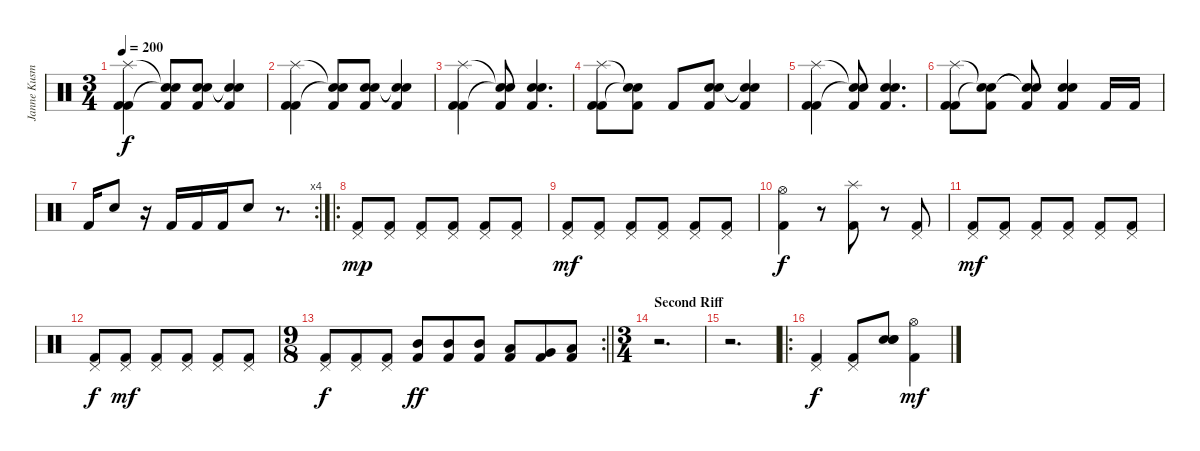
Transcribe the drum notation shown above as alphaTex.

\track ("Janne Kusmin" "Janne Kusm") {instrument percussion}
\staff {score}
\articulation defaults
\ts (3 4)
\tempo 200
\clef neutral
\ks c
("Splash (hit)" "Kick (hit) 2" "Kick (hit) 2").4{dy f} ("Snare (hit)"{t} "Snare (hit)"{t} "Kick (hit) 2").8 ("Snare (hit) 2" "Snare (hit) 2" "Kick (hit) 2").8 ("Snare (hit)"{t} "Snare (hit)"{t} "Kick (hit) 2").4 |
("Splash (hit)" "Kick (hit) 2" "Kick (hit) 2").4 ("Snare (hit)"{t} "Snare (hit)"{t} "Kick (hit) 2").8 ("Snare (hit) 2" "Snare (hit) 2" "Kick (hit) 2").8 ("Snare (hit)"{t} "Snare (hit)"{t} "Kick (hit) 2").4 |
("Splash (hit)" "Kick (hit) 2" "Kick (hit) 2").4 ("Snare (hit)"{t} "Snare (hit)"{t} "Kick (hit) 2").8 ("Snare (hit) 2" "Snare (hit) 2" "Kick (hit) 2").4{d} |
("Splash (hit)" "Kick (hit) 2" "Kick (hit) 2").8 ("Snare (hit)"{t} "Snare (hit)"{t} "Kick (hit) 2").8 "Kick (hit) 2".8 ("Snare (hit) 2" "Snare (hit) 2" "Kick (hit) 2").8 ("Snare (hit)"{t} "Snare (hit)"{t} "Kick (hit) 2").4 |
("Splash (hit)" "Kick (hit) 2" "Kick (hit) 2").4 ("Snare (hit)"{t} "Snare (hit)"{t} "Kick (hit) 2").8 ("Snare (hit) 2" "Snare (hit) 2" "Kick (hit) 2").4{d} |
("Splash (hit)" "Kick (hit) 2" "Kick (hit) 2").8 ("Snare (hit)"{t} "Snare (hit)"{t} "Kick (hit) 2").8 ("Snare (hit)"{t} "Snare (hit)"{t} "Kick (hit) 2").8 ("Snare (hit) 2" "Snare (hit) 2" "Kick (hit) 2").4 "Kick (hit) 2".16 "Kick (hit) 2".16 |
\rc 4 "Kick (hit) 2".16 "Snare (hit) 2".8
r.16 "Kick (hit) 2".16 "Kick (hit) 2".16 "Kick (hit) 2".16 "Snare (hit) 2".8 r.8{d} |
\ro
("Pedal Hi-Hat (hit)" "Kick (hit) 2").8{dy mp} ("Pedal Hi-Hat (hit)" "Kick (hit) 2").8 ("Pedal Hi-Hat (hit)" "Kick (hit) 2").8 ("Pedal Hi-Hat (hit)" "Kick (hit) 2").8 ("Pedal Hi-Hat (hit)" "Kick (hit) 2").8 ("Pedal Hi-Hat (hit)" "Kick (hit) 2").8 |
("Pedal Hi-Hat (hit)" "Kick (hit) 2").8{dy mf} ("Pedal Hi-Hat (hit)" "Kick (hit) 2").8 ("Pedal Hi-Hat (hit)" "Kick (hit) 2").8 ("Pedal Hi-Hat (hit)" "Kick (hit) 2").8 ("Pedal Hi-Hat (hit)" "Kick (hit) 2").8 ("Pedal Hi-Hat (hit)" "Kick (hit) 2").8 |
("Hi-Hat (open)" "Kick (hit) 2").4{dy f} r.8 ("Splash (hit)" "Kick (hit) 2").8 r.8 ("Pedal Hi-Hat (hit)" "Kick (hit) 2").8 |
("Pedal Hi-Hat (hit)" "Kick (hit) 2").8{dy mf} ("Pedal Hi-Hat (hit)" "Kick (hit) 2").8 ("Pedal Hi-Hat (hit)" "Kick (hit) 2").8 ("Pedal Hi-Hat (hit)" "Kick (hit) 2").8 ("Pedal Hi-Hat (hit)" "Kick (hit) 2").8 ("Pedal Hi-Hat (hit)" "Kick (hit) 2").8 |
("Pedal Hi-Hat (hit)" "Kick (hit) 2").8{dy f} ("Pedal Hi-Hat (hit)" "Kick (hit) 2").8{dy mf} ("Pedal Hi-Hat (hit)" "Kick (hit) 2").8 ("Pedal Hi-Hat (hit)" "Kick (hit) 2").8 ("Pedal Hi-Hat (hit)" "Kick (hit) 2").8 ("Pedal Hi-Hat (hit)" "Kick (hit) 2").8 |
\rc 2
\ts (9 8)
\barLineRight lightlight
("Pedal Hi-Hat (hit)" "Kick (hit) 2").8{dy f} ("Pedal Hi-Hat (hit)" "Kick (hit) 2").8 ("Pedal Hi-Hat (hit)" "Kick (hit) 2").8 ("Mid Tom (hit)" "Kick (hit) 2").8{dy ff} ("Mid Tom (hit)" "Kick (hit) 2").8 ("Mid Tom (hit)" "Kick (hit) 2").8 ("Low Tom (hit)" "Kick (hit) 2").8 ("Very Low Tom (hit)" "Kick (hit) 2").8 ("Low Floor Tom (hit)" "Kick (hit) 2").8 |
\ts (3 4)
\section ("" "Second Riff")
r.2{d} |
r.2{d} |
\ro
("Pedal Hi-Hat (hit)" "Kick (hit) 2").4{dy f} ("Pedal Hi-Hat (hit)" "Kick (hit) 2").8 ("Snare (hit) 2" "Snare (hit) 2" "Snare (hit) 2").8 ("Hi-Hat (open)" "Kick (hit) 2").4{dy mf}
